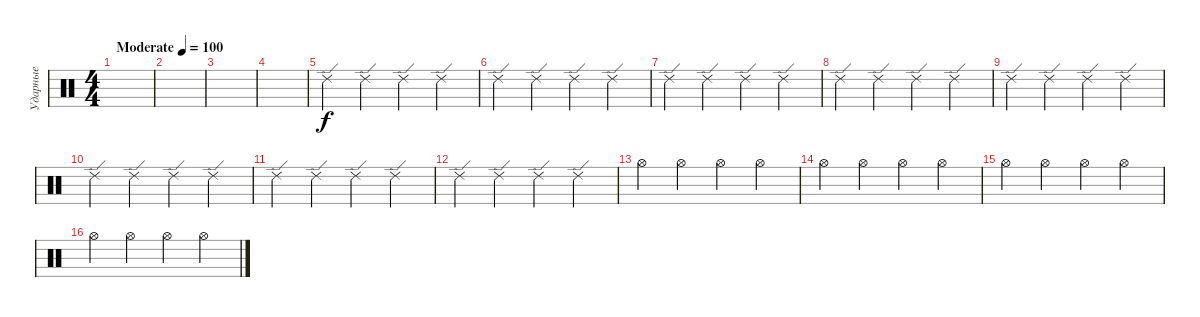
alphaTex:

\track ("Ударные" "Ударные") {instrument percussion}
\staff {score}
\articulation defaults
\ts (4 4)
\tempo (100 "Moderate")
\clef neutral
\ks c
|
|
|
|
"Ride (edge) 2".4 "Ride (edge) 2".4 "Ride (edge) 2".4 "Ride (edge) 2".4 |
"Ride (edge) 2".4 "Ride (edge) 2".4 "Ride (edge) 2".4 "Ride (edge) 2".4 |
"Ride (edge) 2".4 "Ride (edge) 2".4 "Ride (edge) 2".4 "Ride (edge) 2".4 |
"Ride (edge) 2".4 "Ride (edge) 2".4 "Ride (edge) 2".4 "Ride (edge) 2".4 |
"Ride (edge) 2".4 "Ride (edge) 2".4 "Ride (edge) 2".4 "Ride (edge) 2".4 |
"Ride (edge) 2".4 "Ride (edge) 2".4 "Ride (edge) 2".4 "Ride (edge) 2".4 |
"Ride (edge) 2".4 "Ride (edge) 2".4 "Ride (edge) 2".4 "Ride (edge) 2".4 |
"Ride (edge) 2".4 "Ride (edge) 2".4 "Ride (edge) 2".4 "Ride (edge) 2".4 |
"Hi-Hat (open)".4 "Hi-Hat (open)".4 "Hi-Hat (open)".4 "Hi-Hat (open)".4 |
"Hi-Hat (open)".4 "Hi-Hat (open)".4 "Hi-Hat (open)".4 "Hi-Hat (open)".4 |
"Hi-Hat (open)".4 "Hi-Hat (open)".4 "Hi-Hat (open)".4 "Hi-Hat (open)".4 |
"Hi-Hat (open)".4 "Hi-Hat (open)".4 "Hi-Hat (open)".4 "Hi-Hat (open)".4
